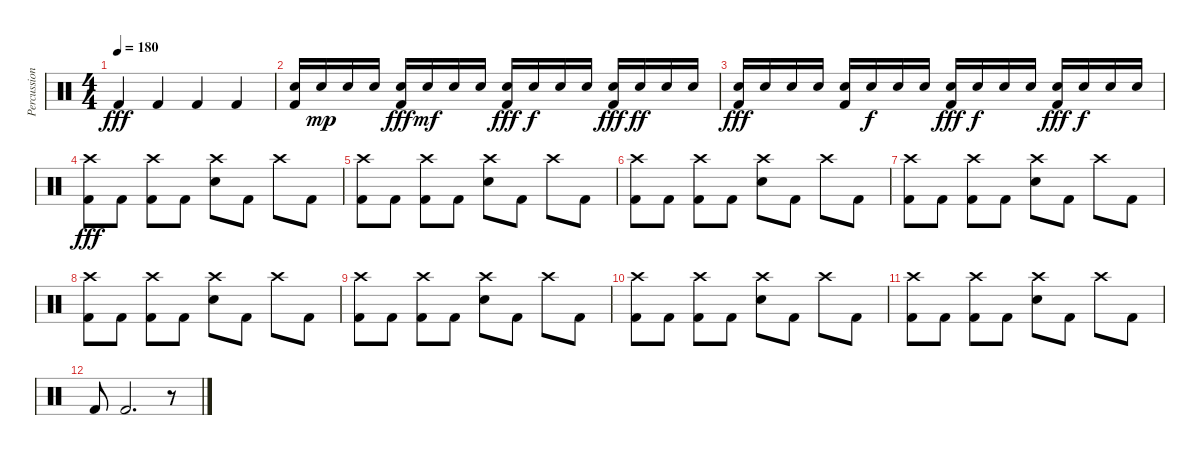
\track ("Percussion" "Percussion") {instrument percussion}
\staff {score}
\articulation defaults
\ts (4 4)
\tempo 180
\clef neutral
\ks c "Kick (hit) 2".4{dy fff} "Kick (hit) 2".4 "Kick (hit) 2".4 "Kick (hit) 2".4
|
("Electric Snare (hit)" "Kick (hit) 2").16 "Electric Snare (hit)".16{dy mp} "Electric Snare (hit)".16 "Electric Snare (hit)".16 ("Electric Snare (hit)" "Kick (hit) 2").16{dy fff} "Electric Snare (hit)".16{dy mf} "Electric Snare (hit)".16 "Electric Snare (hit)".16 ("Electric Snare (hit)" "Kick (hit) 2").16{dy fff} "Electric Snare (hit)".16{dy f} "Electric Snare (hit)".16 "Electric Snare (hit)".16 ("Electric Snare (hit)" "Kick (hit) 2").16{dy fff} "Electric Snare (hit)".16{dy ff} "Electric Snare (hit)".16 "Electric Snare (hit)".16 |
("Electric Snare (hit)" "Kick (hit) 2").16{dy fff} "Electric Snare (hit)".16 "Electric Snare (hit)".16 "Electric Snare (hit)".16 ("Electric Snare (hit)" "Kick (hit) 2").16 "Electric Snare (hit)".16{dy f} "Electric Snare (hit)".16 "Electric Snare (hit)".16 ("Electric Snare (hit)" "Kick (hit) 2").16{dy fff} "Electric Snare (hit)".16{dy f} "Electric Snare (hit)".16 "Electric Snare (hit)".16 ("Electric Snare (hit)" "Kick (hit) 2").16{dy fff} "Electric Snare (hit)".16{dy f} "Electric Snare (hit)".16 "Electric Snare (hit)".16 |
("Crash high (hit)" "Kick (hit) 2").8{dy fff} "Kick (hit) 2".8 ("Crash high (hit)" "Kick (hit) 2").8 "Kick (hit) 2".8 ("Crash high (hit)" "Electric Snare (hit)").8 "Kick (hit) 2".8 "Crash high (hit)".8 "Kick (hit) 2".8 |
("Crash high (hit)" "Kick (hit) 2").8 "Kick (hit) 2".8 ("Crash high (hit)" "Kick (hit) 2").8 "Kick (hit) 2".8 ("Crash high (hit)" "Electric Snare (hit)").8 "Kick (hit) 2".8 "Crash high (hit)".8 "Kick (hit) 2".8 |
("Crash high (hit)" "Kick (hit) 2").8 "Kick (hit) 2".8 ("Crash high (hit)" "Kick (hit) 2").8 "Kick (hit) 2".8 ("Crash high (hit)" "Electric Snare (hit)").8 "Kick (hit) 2".8 "Crash high (hit)".8 "Kick (hit) 2".8 |
("Crash high (hit)" "Kick (hit) 2").8 "Kick (hit) 2".8 ("Crash high (hit)" "Kick (hit) 2").8 "Kick (hit) 2".8 ("Crash high (hit)" "Electric Snare (hit)").8 "Kick (hit) 2".8 "Crash high (hit)".8 "Kick (hit) 2".8 |
("Crash high (hit)" "Kick (hit) 2").8 "Kick (hit) 2".8 ("Crash high (hit)" "Kick (hit) 2").8 "Kick (hit) 2".8 ("Crash high (hit)" "Electric Snare (hit)").8 "Kick (hit) 2".8 "Crash high (hit)".8 "Kick (hit) 2".8 |
("Crash high (hit)" "Kick (hit) 2").8 "Kick (hit) 2".8 ("Crash high (hit)" "Kick (hit) 2").8 "Kick (hit) 2".8 ("Crash high (hit)" "Electric Snare (hit)").8 "Kick (hit) 2".8 "Crash high (hit)".8 "Kick (hit) 2".8 |
("Crash high (hit)" "Kick (hit) 2").8 "Kick (hit) 2".8 ("Crash high (hit)" "Kick (hit) 2").8 "Kick (hit) 2".8 ("Crash high (hit)" "Electric Snare (hit)").8 "Kick (hit) 2".8 "Crash high (hit)".8 "Kick (hit) 2".8 |
("Crash high (hit)" "Kick (hit) 2").8 "Kick (hit) 2".8 ("Crash high (hit)" "Kick (hit) 2").8 "Kick (hit) 2".8 ("Crash high (hit)" "Electric Snare (hit)").8 "Kick (hit) 2".8 "Crash high (hit)".8 "Kick (hit) 2".8 |
"Kick (hit) 2".8 "Kick (hit) 2".2{d} r.8
